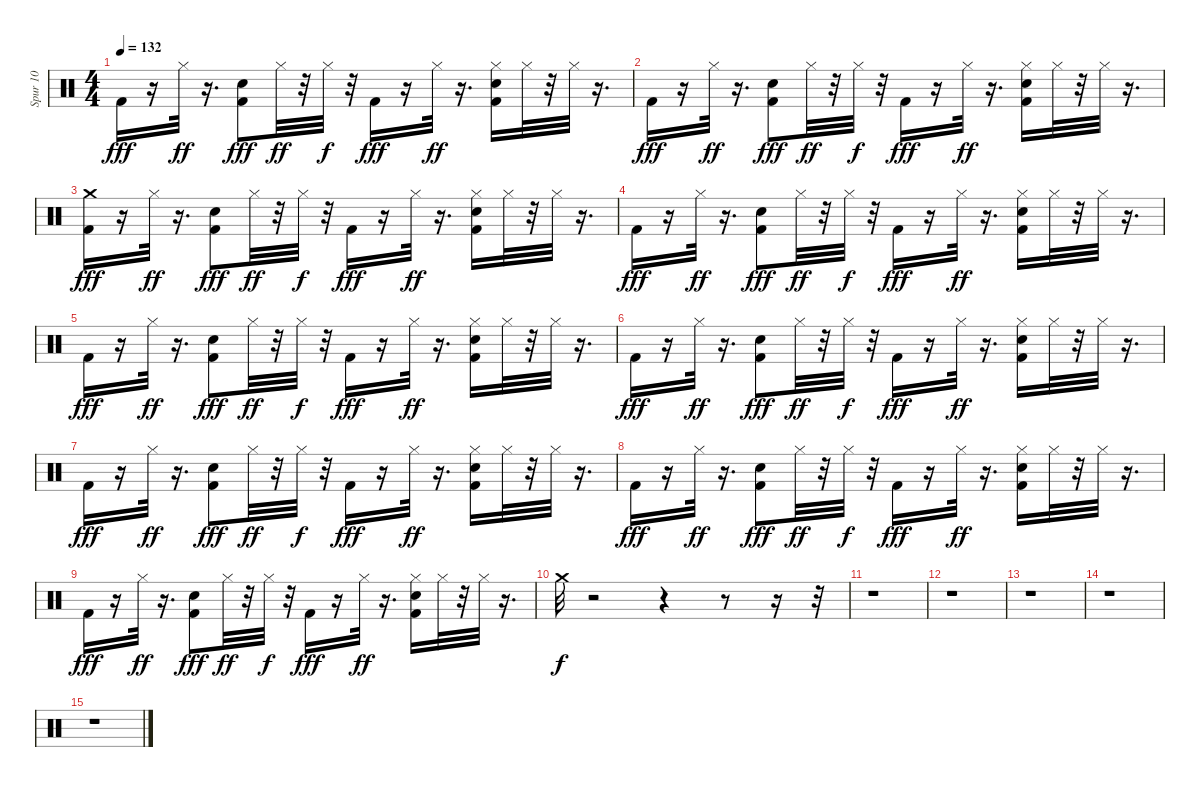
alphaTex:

\track ("Spur 10" "Spur 10") {instrument percussion}
\staff {score}
\articulation defaults
\ts (4 4)
\tempo 132
\clef neutral
\ks c "Kick (hit) 2".16{dy fff}
r.16 "Hi-Hat (closed)".32{dy ff} r.16{d} ("Snare (hit) 2" "Kick (hit) 2").8{dy fff} "Hi-Hat (closed)".32{dy ff} r.32 "Hi-Hat (closed)".32{dy f} r.32 "Kick (hit) 2".16{dy fff} r.16 "Hi-Hat (closed)".32{dy ff} r.16{d} ("Snare (hit) 2" "Kick (hit) 2" "Hi-Hat (closed)").16 "Hi-Hat (closed)".32 r.32 "Hi-Hat (closed)".32 r.16{d} |
"Kick (hit) 2".16{dy fff} r.16 "Hi-Hat (closed)".32{dy ff} r.16{d} ("Snare (hit) 2" "Kick (hit) 2").8{dy fff} "Hi-Hat (closed)".32{dy ff} r.32 "Hi-Hat (closed)".32{dy f} r.32 "Kick (hit) 2".16{dy fff} r.16 "Hi-Hat (closed)".32{dy ff} r.16{d} ("Snare (hit) 2" "Kick (hit) 2" "Hi-Hat (closed)").16 "Hi-Hat (closed)".32 r.32 "Hi-Hat (closed)".32 r.16{d} |
("Crash medium (hit)" "Kick (hit) 2").16{dy fff} r.16 "Hi-Hat (closed)".32{dy ff} r.16{d} ("Snare (hit) 2" "Kick (hit) 2").8{dy fff} "Hi-Hat (closed)".32{dy ff} r.32 "Hi-Hat (closed)".32{dy f} r.32 "Kick (hit) 2".16{dy fff} r.16 "Hi-Hat (closed)".32{dy ff} r.16{d} ("Snare (hit) 2" "Kick (hit) 2" "Hi-Hat (closed)").16 "Hi-Hat (closed)".32 r.32 "Hi-Hat (closed)".32 r.16{d} |
"Kick (hit) 2".16{dy fff} r.16 "Hi-Hat (closed)".32{dy ff} r.16{d} ("Snare (hit) 2" "Kick (hit) 2").8{dy fff} "Hi-Hat (closed)".32{dy ff} r.32 "Hi-Hat (closed)".32{dy f} r.32 "Kick (hit) 2".16{dy fff} r.16 "Hi-Hat (closed)".32{dy ff} r.16{d} ("Snare (hit) 2" "Kick (hit) 2" "Hi-Hat (closed)").16 "Hi-Hat (closed)".32 r.32 "Hi-Hat (closed)".32 r.16{d} |
"Kick (hit) 2".16{dy fff} r.16 "Hi-Hat (closed)".32{dy ff} r.16{d} ("Snare (hit) 2" "Kick (hit) 2").8{dy fff} "Hi-Hat (closed)".32{dy ff} r.32 "Hi-Hat (closed)".32{dy f} r.32 "Kick (hit) 2".16{dy fff} r.16 "Hi-Hat (closed)".32{dy ff} r.16{d} ("Snare (hit) 2" "Kick (hit) 2" "Hi-Hat (closed)").16 "Hi-Hat (closed)".32 r.32 "Hi-Hat (closed)".32 r.16{d} |
"Kick (hit) 2".16{dy fff} r.16 "Hi-Hat (closed)".32{dy ff} r.16{d} ("Snare (hit) 2" "Kick (hit) 2").8{dy fff} "Hi-Hat (closed)".32{dy ff} r.32 "Hi-Hat (closed)".32{dy f} r.32 "Kick (hit) 2".16{dy fff} r.16 "Hi-Hat (closed)".32{dy ff} r.16{d} ("Snare (hit) 2" "Kick (hit) 2" "Hi-Hat (closed)").16 "Hi-Hat (closed)".32 r.32 "Hi-Hat (closed)".32 r.16{d} |
"Kick (hit) 2".16{dy fff} r.16 "Hi-Hat (closed)".32{dy ff} r.16{d} ("Snare (hit) 2" "Kick (hit) 2").8{dy fff} "Hi-Hat (closed)".32{dy ff} r.32 "Hi-Hat (closed)".32{dy f} r.32 "Kick (hit) 2".16{dy fff} r.16 "Hi-Hat (closed)".32{dy ff} r.16{d} ("Snare (hit) 2" "Kick (hit) 2" "Hi-Hat (closed)").16 "Hi-Hat (closed)".32 r.32 "Hi-Hat (closed)".32 r.16{d} |
"Kick (hit) 2".16{dy fff} r.16 "Hi-Hat (closed)".32{dy ff} r.16{d} ("Snare (hit) 2" "Kick (hit) 2").8{dy fff} "Hi-Hat (closed)".32{dy ff} r.32 "Hi-Hat (closed)".32{dy f} r.32 "Kick (hit) 2".16{dy fff} r.16 "Hi-Hat (closed)".32{dy ff} r.16{d} ("Snare (hit) 2" "Kick (hit) 2" "Hi-Hat (closed)").16 "Hi-Hat (closed)".32 r.32 "Hi-Hat (closed)".32 r.16{d} |
"Kick (hit) 2".16{dy fff} r.16 "Hi-Hat (closed)".32{dy ff} r.16{d} ("Snare (hit) 2" "Kick (hit) 2").8{dy fff} "Hi-Hat (closed)".32{dy ff} r.32 "Hi-Hat (closed)".32{dy f} r.32 "Kick (hit) 2".16{dy fff} r.16 "Hi-Hat (closed)".32{dy ff} r.16{d} ("Snare (hit) 2" "Kick (hit) 2" "Hi-Hat (closed)").16 "Hi-Hat (closed)".32 r.32 "Hi-Hat (closed)".32 r.16{d} |
"Crash medium (hit)".32{dy f} r.2 r.4 r.8 r.16 r.32 |
r.1 |
r.1 |
r.1 |
r.1 |
r.1
